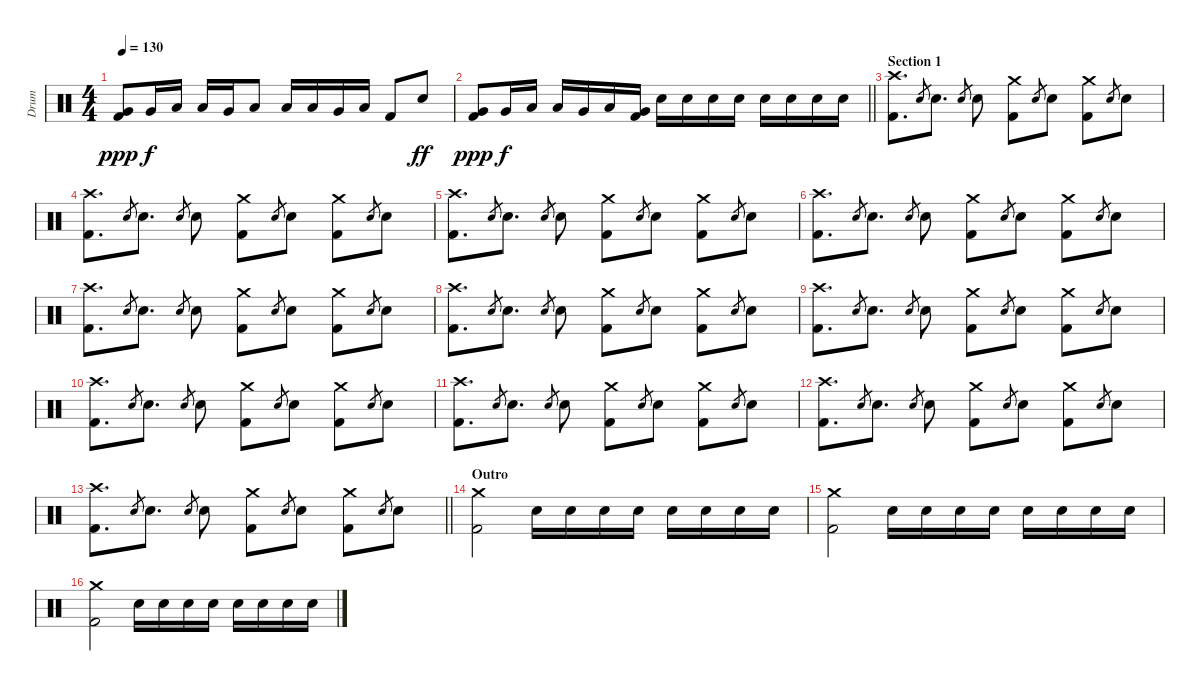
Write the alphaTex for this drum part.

\track ("Drum" "Drum") {instrument percussion}
\staff {score}
\articulation defaults
\ts (4 4)
\tempo 130
\clef neutral
\ks c
("Very Low Tom (hit)" "Kick (hit) 2").8{dy ppp} "Very Low Tom (hit)".16{dy f} "Low Tom (hit)".16 "Low Tom (hit)".16 "Very Low Tom (hit)".16 "Low Tom (hit)".8 "Low Floor Tom (hit)".16 "Low Tom (hit)".16 "Very Low Tom (hit)".16 "Low Floor Tom (hit)".16 "Kick (hit) 2".8 "Electric Snare (hit)".8{dy ff} |
\barLineRight lightlight
("Very Low Tom (hit)" "Kick (hit) 2").8{dy ppp} "Very Low Tom (hit)".16{dy f} "Low Tom (hit)".16 "Low Tom (hit)".16 "Very Low Tom (hit)".16 "Low Tom (hit)".16 ("Kick (hit) 2" "Very Low Tom (hit)").16 "Electric Snare (hit)".16 "Electric Snare (hit)".16 "Electric Snare (hit)".16 "Electric Snare (hit)".16 "Electric Snare (hit)".16 "Electric Snare (hit)".16 "Electric Snare (hit)".16 "Electric Snare (hit)".16 |
\section ("" "Section 1")
("Crash high (hit)" "Kick (hit) 2").8{d} "Electric Snare (hit)".8{gr} "Electric Snare (hit)".8{d} "Electric Snare (hit)".8{gr} "Electric Snare (hit)".8 ("Kick (hit) 2" "Crash medium (hit)").8 "Electric Snare (hit)".8{gr} "Electric Snare (hit)".8 ("Kick (hit) 2" "Crash medium (hit)").8 "Electric Snare (hit)".8{gr} "Electric Snare (hit)".8 |
("Crash high (hit)" "Kick (hit) 2").8{d} "Electric Snare (hit)".8{gr} "Electric Snare (hit)".8{d} "Electric Snare (hit)".8{gr} "Electric Snare (hit)".8 ("Kick (hit) 2" "Crash medium (hit)").8 "Electric Snare (hit)".8{gr} "Electric Snare (hit)".8 ("Kick (hit) 2" "Crash medium (hit)").8 "Electric Snare (hit)".8{gr} "Electric Snare (hit)".8 |
("Crash high (hit)" "Kick (hit) 2").8{d} "Electric Snare (hit)".8{gr} "Electric Snare (hit)".8{d} "Electric Snare (hit)".8{gr} "Electric Snare (hit)".8 ("Kick (hit) 2" "Crash medium (hit)").8 "Electric Snare (hit)".8{gr} "Electric Snare (hit)".8 ("Kick (hit) 2" "Crash medium (hit)").8 "Electric Snare (hit)".8{gr} "Electric Snare (hit)".8 |
("Crash high (hit)" "Kick (hit) 2").8{d} "Electric Snare (hit)".8{gr} "Electric Snare (hit)".8{d} "Electric Snare (hit)".8{gr} "Electric Snare (hit)".8 ("Kick (hit) 2" "Crash medium (hit)").8 "Electric Snare (hit)".8{gr} "Electric Snare (hit)".8 ("Kick (hit) 2" "Crash medium (hit)").8 "Electric Snare (hit)".8{gr} "Electric Snare (hit)".8 |
("Crash high (hit)" "Kick (hit) 2").8{d} "Electric Snare (hit)".8{gr} "Electric Snare (hit)".8{d} "Electric Snare (hit)".8{gr} "Electric Snare (hit)".8 ("Kick (hit) 2" "Crash medium (hit)").8 "Electric Snare (hit)".8{gr} "Electric Snare (hit)".8 ("Kick (hit) 2" "Crash medium (hit)").8 "Electric Snare (hit)".8{gr} "Electric Snare (hit)".8 |
("Crash high (hit)" "Kick (hit) 2").8{d} "Electric Snare (hit)".8{gr} "Electric Snare (hit)".8{d} "Electric Snare (hit)".8{gr} "Electric Snare (hit)".8 ("Kick (hit) 2" "Crash medium (hit)").8 "Electric Snare (hit)".8{gr} "Electric Snare (hit)".8 ("Kick (hit) 2" "Crash medium (hit)").8 "Electric Snare (hit)".8{gr} "Electric Snare (hit)".8 |
("Crash high (hit)" "Kick (hit) 2").8{d} "Electric Snare (hit)".8{gr} "Electric Snare (hit)".8{d} "Electric Snare (hit)".8{gr} "Electric Snare (hit)".8 ("Kick (hit) 2" "Crash medium (hit)").8 "Electric Snare (hit)".8{gr} "Electric Snare (hit)".8 ("Kick (hit) 2" "Crash medium (hit)").8 "Electric Snare (hit)".8{gr} "Electric Snare (hit)".8 |
("Crash high (hit)" "Kick (hit) 2").8{d} "Electric Snare (hit)".8{gr} "Electric Snare (hit)".8{d} "Electric Snare (hit)".8{gr} "Electric Snare (hit)".8 ("Kick (hit) 2" "Crash medium (hit)").8 "Electric Snare (hit)".8{gr} "Electric Snare (hit)".8 ("Kick (hit) 2" "Crash medium (hit)").8 "Electric Snare (hit)".8{gr} "Electric Snare (hit)".8 |
("Crash high (hit)" "Kick (hit) 2").8{d} "Electric Snare (hit)".8{gr} "Electric Snare (hit)".8{d} "Electric Snare (hit)".8{gr} "Electric Snare (hit)".8 ("Kick (hit) 2" "Crash medium (hit)").8 "Electric Snare (hit)".8{gr} "Electric Snare (hit)".8 ("Kick (hit) 2" "Crash medium (hit)").8 "Electric Snare (hit)".8{gr} "Electric Snare (hit)".8 |
("Crash high (hit)" "Kick (hit) 2").8{d} "Electric Snare (hit)".8{gr} "Electric Snare (hit)".8{d} "Electric Snare (hit)".8{gr} "Electric Snare (hit)".8 ("Kick (hit) 2" "Crash medium (hit)").8 "Electric Snare (hit)".8{gr} "Electric Snare (hit)".8 ("Kick (hit) 2" "Crash medium (hit)").8 "Electric Snare (hit)".8{gr} "Electric Snare (hit)".8 |
\barLineRight lightlight
("Crash high (hit)" "Kick (hit) 2").8{d} "Electric Snare (hit)".8{gr} "Electric Snare (hit)".8{d} "Electric Snare (hit)".8{gr} "Electric Snare (hit)".8 ("Kick (hit) 2" "Crash medium (hit)").8 "Electric Snare (hit)".8{gr} "Electric Snare (hit)".8 ("Kick (hit) 2" "Crash medium (hit)").8 "Electric Snare (hit)".8{gr} "Electric Snare (hit)".8 |
\section ("" "Outro")
("Kick (hit) 2" "Crash medium (hit)").2 "Electric Snare (hit)".16 "Electric Snare (hit)".16 "Electric Snare (hit)".16 "Electric Snare (hit)".16 "Electric Snare (hit)".16 "Electric Snare (hit)".16 "Electric Snare (hit)".16 "Electric Snare (hit)".16 |
("Kick (hit) 2" "Crash medium (hit)").2 "Electric Snare (hit)".16 "Electric Snare (hit)".16 "Electric Snare (hit)".16 "Electric Snare (hit)".16 "Electric Snare (hit)".16 "Electric Snare (hit)".16 "Electric Snare (hit)".16 "Electric Snare (hit)".16 |
("Kick (hit) 2" "Crash medium (hit)").2 "Electric Snare (hit)".16 "Electric Snare (hit)".16 "Electric Snare (hit)".16 "Electric Snare (hit)".16 "Electric Snare (hit)".16 "Electric Snare (hit)".16 "Electric Snare (hit)".16 "Electric Snare (hit)".16
